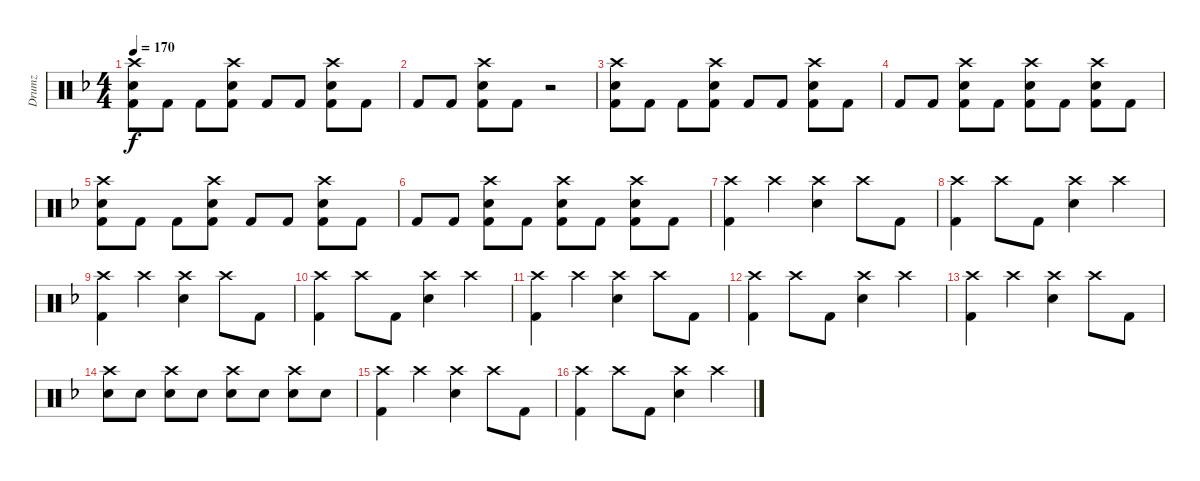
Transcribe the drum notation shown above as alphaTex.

\track ("Drumz" "Drumz") {instrument percussion}
\staff {score}
\articulation defaults
\ts (4 4)
\tempo 170
\clef neutral
\ks dminor
("Crash high (hit)" "Snare (hit) 2" "Kick (hit) 2").8{dy f} "Kick (hit) 2".8 "Kick (hit) 2".8 ("Crash high (hit)" "Snare (hit) 2" "Kick (hit) 2").8 "Kick (hit) 2".8 "Kick (hit) 2".8 ("Crash high (hit)" "Snare (hit)" "Kick (hit) 2").8 "Kick (hit) 2".8 |
"Kick (hit) 2".8 "Kick (hit) 2".8 ("Crash high (hit)" "Snare (hit) 2" "Kick (hit) 2").8 "Kick (hit) 2".8 r.2 |
("Crash high (hit)" "Snare (hit) 2" "Kick (hit) 2").8 "Kick (hit) 2".8 "Kick (hit) 2".8 ("Crash high (hit)" "Snare (hit) 2" "Kick (hit) 2").8 "Kick (hit) 2".8 "Kick (hit) 2".8 ("Crash high (hit)" "Snare (hit)" "Kick (hit) 2").8 "Kick (hit) 2".8 |
"Kick (hit) 2".8 "Kick (hit) 2".8 ("Crash high (hit)" "Snare (hit) 2" "Kick (hit) 2").8 "Kick (hit) 2".8 ("Crash high (hit)" "Snare (hit) 2" "Kick (hit) 2").8 "Kick (hit) 2".8 ("Crash high (hit)" "Snare (hit) 2" "Kick (hit) 2").8 "Kick (hit) 2".8 |
("Crash high (hit)" "Snare (hit) 2" "Kick (hit) 2").8 "Kick (hit) 2".8 "Kick (hit) 2".8 ("Crash high (hit)" "Snare (hit) 2" "Kick (hit) 2").8 "Kick (hit) 2".8 "Kick (hit) 2".8 ("Crash high (hit)" "Snare (hit)" "Kick (hit) 2").8 "Kick (hit) 2".8 |
"Kick (hit) 2".8 "Kick (hit) 2".8 ("Crash high (hit)" "Snare (hit) 2" "Kick (hit) 2").8 "Kick (hit) 2".8 ("Crash high (hit)" "Snare (hit) 2" "Kick (hit) 2").8 "Kick (hit) 2".8 ("Crash high (hit)" "Snare (hit) 2" "Kick (hit) 2").8 "Kick (hit) 2".8 |
("Crash high (hit)" "Kick (hit) 2").4 "Crash high (hit)".4 ("Crash high (hit)" "Snare (hit) 2").4 "Crash high (hit)".8 "Kick (hit) 2".8 |
("Crash high (hit)" "Kick (hit) 2").4 "Crash high (hit)".8 "Kick (hit) 2".8 ("Crash high (hit)" "Snare (hit) 2").4 "Crash high (hit)".4 |
("Crash high (hit)" "Kick (hit) 2").4 "Crash high (hit)".4 ("Crash high (hit)" "Snare (hit) 2").4 "Crash high (hit)".8 "Kick (hit) 2".8 |
("Crash high (hit)" "Kick (hit) 2").4 "Crash high (hit)".8 "Kick (hit) 2".8 ("Crash high (hit)" "Snare (hit) 2").4 "Crash high (hit)".4 |
("Crash high (hit)" "Kick (hit) 2").4 "Crash high (hit)".4 ("Crash high (hit)" "Snare (hit) 2").4 "Crash high (hit)".8 "Kick (hit) 2".8 |
("Crash high (hit)" "Kick (hit) 2").4 "Crash high (hit)".8 "Kick (hit) 2".8 ("Crash high (hit)" "Snare (hit) 2").4 "Crash high (hit)".4 |
("Crash high (hit)" "Kick (hit) 2").4 "Crash high (hit)".4 ("Crash high (hit)" "Snare (hit) 2").4 "Crash high (hit)".8 "Kick (hit) 2".8 |
("Crash high (hit)" "Snare (hit) 2").8 "Snare (hit) 2".8 ("Crash high (hit)" "Snare (hit) 2").8 "Snare (hit) 2".8 ("Crash high (hit)" "Snare (hit) 2").8 "Snare (hit) 2".8 ("Crash high (hit)" "Snare (hit) 2").8 "Snare (hit) 2".8 |
("Crash high (hit)" "Kick (hit) 2").4 "Crash high (hit)".4 ("Crash high (hit)" "Snare (hit) 2").4 "Crash high (hit)".8 "Kick (hit) 2".8 |
("Crash high (hit)" "Kick (hit) 2").4 "Crash high (hit)".8 "Kick (hit) 2".8 ("Crash high (hit)" "Snare (hit) 2").4 "Crash high (hit)".4
